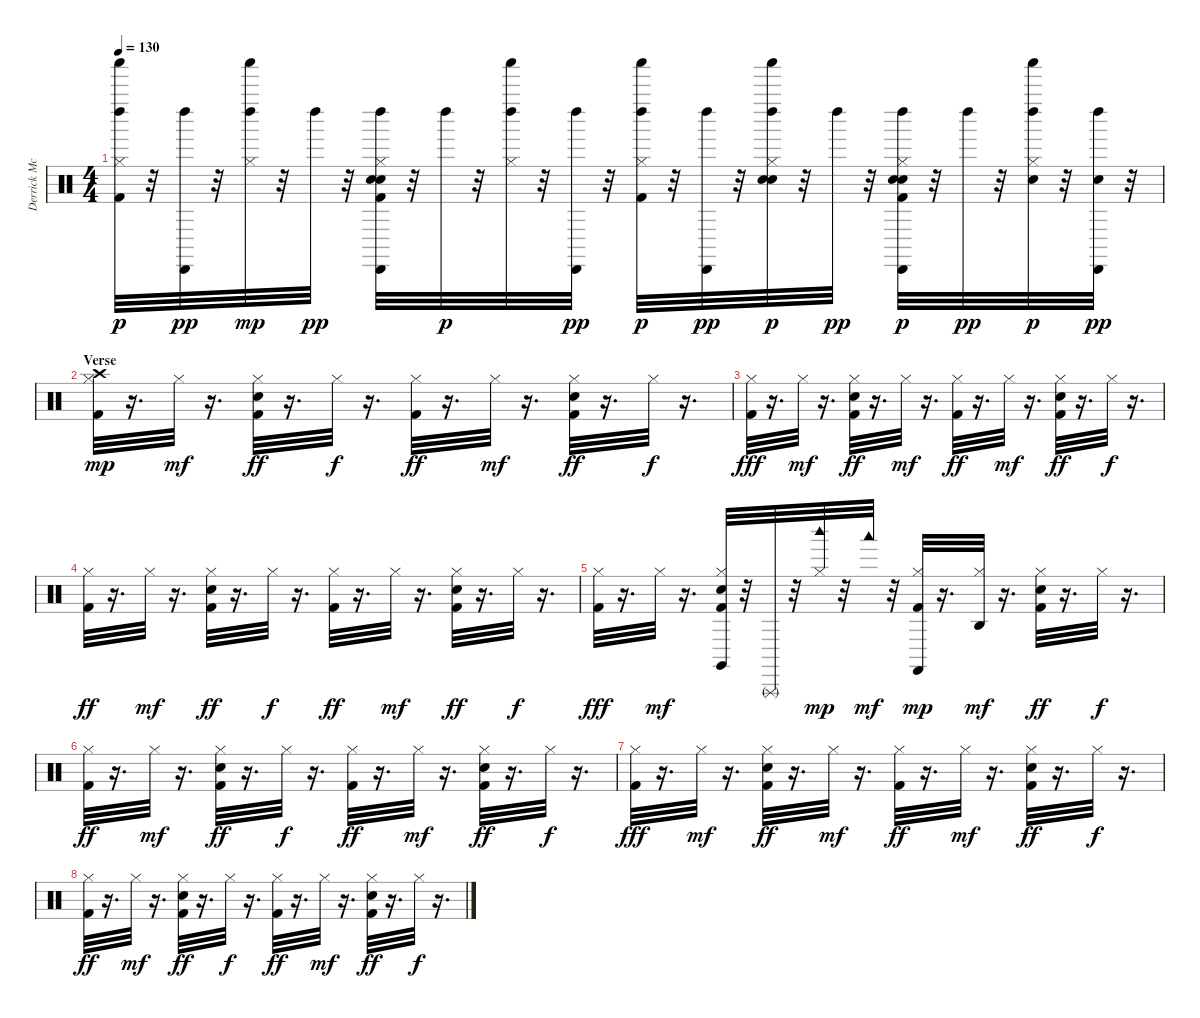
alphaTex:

\track ("Derrick McKenzie\\Sola Akingbola - Drums" "Derrick Mc") {instrument percussion}
\staff {score}
\articulation defaults
\ts (4 4)
\tempo 130
\clef neutral
\ks c
("Kick (hit) 2" "Hi-Hat (closed)" "Left Maraca (hit)" "Shaker (hit)").32{dy p} r.32 ("Cabasa (hit)" "Left Maraca (hit)").32{dy pp} r.32 ("Hi-Hat (closed)" "Left Maraca (hit)" "Shaker (hit)").32{dy mp} r.32 "Left Maraca (hit)".32{dy pp} r.32 ("Kick (hit) 2" "Hand Clap (hit)" "Electric Snare (hit)" "Hi-Hat (closed)" "Cabasa (hit)" "Left Maraca (hit)").32 r.32 "Left Maraca (hit)".32{dy p} r.32 ("Hi-Hat (closed)" "Left Maraca (hit)" "Shaker (hit)").32 r.32 ("Cabasa (hit)" "Left Maraca (hit)").32{dy pp} r.32 ("Kick (hit) 2" "Hi-Hat (closed)" "Left Maraca (hit)" "Shaker (hit)").32{dy p} r.32 ("Cabasa (hit)" "Left Maraca (hit)").32{dy pp} r.32 ("Hand Clap (hit)" "Electric Snare (hit)" "Hi-Hat (closed)" "Left Maraca (hit)" "Shaker (hit)").32{dy p} r.32 "Left Maraca (hit)".32{dy pp} r.32 ("Kick (hit) 2" "Hand Clap (hit)" "Electric Snare (hit)" "Hi-Hat (closed)" "Cabasa (hit)" "Left Maraca (hit)").32{dy p} r.32 "Left Maraca (hit)".32{dy pp} r.32 ("Electric Snare (hit)" "Hi-Hat (closed)" "Left Maraca (hit)" "Shaker (hit)").32{dy p} r.32 ("Electric Snare (hit)" "Cabasa (hit)" "Left Maraca (hit)").32{dy pp} r.32 |
\section ("" "Verse")
("Kick (hit) 2" "Hi-Hat (closed)" "Crash high (hit)").32{dy mp} r.16{d} "Hi-Hat (closed)".32{dy mf} r.16{d} ("Kick (hit) 2" "Electric Snare (hit)" "Hi-Hat (closed)").32{dy ff} r.16{d} "Hi-Hat (closed)".32{dy f} r.16{d} ("Kick (hit) 2" "Hi-Hat (closed)").32{dy ff} r.16{d} "Hi-Hat (closed)".32{dy mf} r.16{d} ("Kick (hit) 2" "Electric Snare (hit)" "Hi-Hat (closed)").32{dy ff} r.16{d} "Hi-Hat (closed)".32{dy f} r.16{d} |
("Kick (hit) 2" "Hi-Hat (closed)").32{dy fff} r.16{d} "Hi-Hat (closed)".32{dy mf} r.16{d} ("Kick (hit) 2" "Electric Snare (hit)" "Hi-Hat (closed)").32{dy ff} r.16{d} "Hi-Hat (closed)".32{dy mf} r.16{d} ("Kick (hit) 2" "Hi-Hat (closed)").32{dy ff} r.16{d} "Hi-Hat (closed)".32{dy mf} r.16{d} ("Kick (hit) 2" "Electric Snare (hit)" "Hi-Hat (closed)").32{dy ff} r.16{d} "Hi-Hat (closed)".32{dy f} r.16{d} |
("Kick (hit) 2" "Hi-Hat (closed)").32{dy ff} r.16{d} "Hi-Hat (closed)".32{dy mf} r.16{d} ("Kick (hit) 2" "Electric Snare (hit)" "Hi-Hat (closed)").32{dy ff} r.16{d} "Hi-Hat (closed)".32{dy f} r.16{d} ("Kick (hit) 2" "Hi-Hat (closed)").32{dy ff} r.16{d} "Hi-Hat (closed)".32{dy mf} r.16{d} ("Kick (hit) 2" "Electric Snare (hit)" "Hi-Hat (closed)").32{dy ff} r.16{d} "Hi-Hat (closed)".32{dy f} r.16{d} |
("Kick (hit) 2" "Hi-Hat (closed)").32{dy fff} r.16{d} "Hi-Hat (closed)".32{dy mf} r.16{d} ("Kick (hit) 2" "Electric Snare (hit)" "Hi-Hat (closed)" "Claves (hit)").32 r.32 "Triangle (rnute)".32 r.32 ("Hi-Hat (closed)" "Woodblock high (hit)").32{dy mp} r.32 "Woodblock low (hit)".32{dy mf} r.32 ("Kick (hit) 2" "Hi-Hat (closed)" "Castanets (hit)").32{dy mp} r.16{d} ("Hi-Hat (closed)" "Agogo high (hit)").32{dy mf} r.16{d} ("Kick (hit) 2" "Electric Snare (hit)" "Hi-Hat (closed)").32{dy ff} r.16{d} "Hi-Hat (closed)".32{dy f} r.16{d} |
("Kick (hit) 2" "Hi-Hat (closed)").32{dy ff} r.16{d} "Hi-Hat (closed)".32{dy mf} r.16{d} ("Kick (hit) 2" "Electric Snare (hit)" "Hi-Hat (closed)").32{dy ff} r.16{d} "Hi-Hat (closed)".32{dy f} r.16{d} ("Kick (hit) 2" "Hi-Hat (closed)").32{dy ff} r.16{d} "Hi-Hat (closed)".32{dy mf} r.16{d} ("Kick (hit) 2" "Electric Snare (hit)" "Hi-Hat (closed)").32{dy ff} r.16{d} "Hi-Hat (closed)".32{dy f} r.16{d} |
("Kick (hit) 2" "Hi-Hat (closed)").32{dy fff} r.16{d} "Hi-Hat (closed)".32{dy mf} r.16{d} ("Kick (hit) 2" "Electric Snare (hit)" "Hi-Hat (closed)").32{dy ff} r.16{d} "Hi-Hat (closed)".32{dy mf} r.16{d} ("Kick (hit) 2" "Hi-Hat (closed)").32{dy ff} r.16{d} "Hi-Hat (closed)".32{dy mf} r.16{d} ("Kick (hit) 2" "Electric Snare (hit)" "Hi-Hat (closed)").32{dy ff} r.16{d} "Hi-Hat (closed)".32{dy f} r.16{d} |
("Kick (hit) 2" "Hi-Hat (closed)").32{dy ff} r.16{d} "Hi-Hat (closed)".32{dy mf} r.16{d} ("Kick (hit) 2" "Electric Snare (hit)" "Hi-Hat (closed)").32{dy ff} r.16{d} "Hi-Hat (closed)".32{dy f} r.16{d} ("Kick (hit) 2" "Hi-Hat (closed)").32{dy ff} r.16{d} "Hi-Hat (closed)".32{dy mf} r.16{d} ("Kick (hit) 2" "Electric Snare (hit)" "Hi-Hat (closed)").32{dy ff} r.16{d} "Hi-Hat (closed)".32{dy f} r.16{d}
